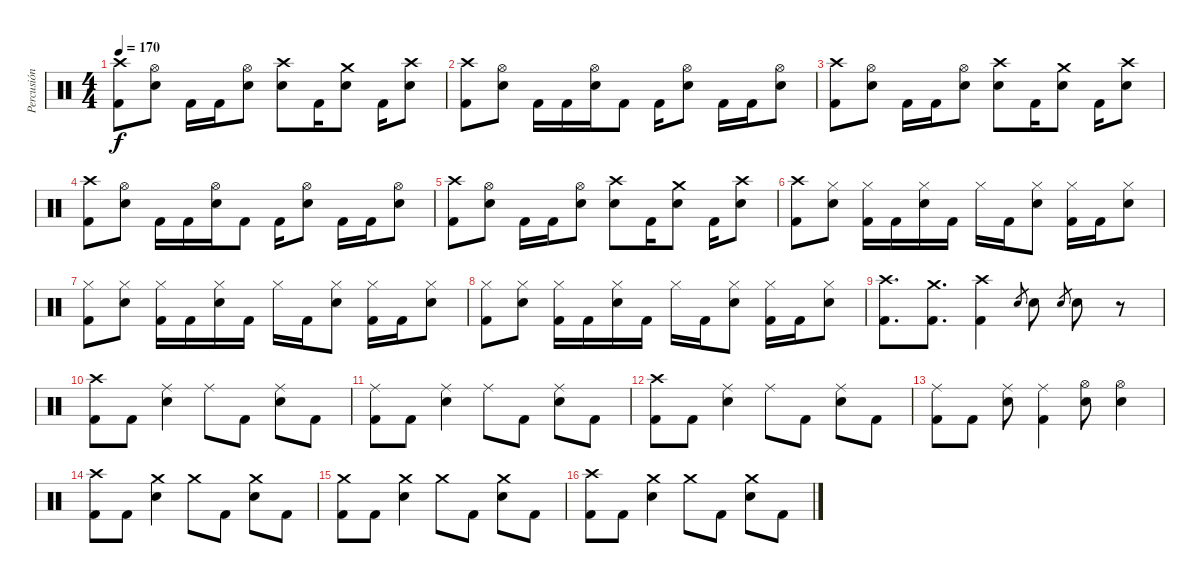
\track ("Percusión" "Percusión") {instrument percussion}
\staff {score}
\articulation defaults
\ts (4 4)
\tempo 170
\clef neutral
\ks c
("Crash high (hit)" "Kick (hit) 2").8{dy f} ("Hi-Hat (open)" "Electric Snare (hit)").8 "Kick (hit) 2".16 "Kick (hit) 2".16 ("Hi-Hat (open)" "Electric Snare (hit)").8 ("Crash high (hit)" "Electric Snare (hit)").8 "Kick (hit) 2".16 ("Crash medium (hit)" "Electric Snare (hit)").8 "Kick (hit) 2".16 ("Crash high (hit)" "Electric Snare (hit)").8 |
("Crash high (hit)" "Kick (hit) 2").8 ("Hi-Hat (open)" "Electric Snare (hit)").8 "Kick (hit) 2".16 "Kick (hit) 2".16 ("Hi-Hat (open)" "Electric Snare (hit)").16 "Kick (hit) 2".8 "Kick (hit) 2".16 ("Hi-Hat (open)" "Electric Snare (hit)").8 "Kick (hit) 2".16 "Kick (hit) 2".16 ("Hi-Hat (open)" "Electric Snare (hit)").8 |
("Crash high (hit)" "Kick (hit) 2").8 ("Hi-Hat (open)" "Electric Snare (hit)").8 "Kick (hit) 2".16 "Kick (hit) 2".16 ("Hi-Hat (open)" "Electric Snare (hit)").8 ("Crash high (hit)" "Electric Snare (hit)").8 "Kick (hit) 2".16 ("Crash medium (hit)" "Electric Snare (hit)").8 "Kick (hit) 2".16 ("Crash high (hit)" "Electric Snare (hit)").8 |
("Crash high (hit)" "Kick (hit) 2").8 ("Hi-Hat (open)" "Electric Snare (hit)").8 "Kick (hit) 2".16 "Kick (hit) 2".16 ("Hi-Hat (open)" "Electric Snare (hit)").16 "Kick (hit) 2".8 "Kick (hit) 2".16 ("Hi-Hat (open)" "Electric Snare (hit)").8 "Kick (hit) 2".16 "Kick (hit) 2".16 ("Hi-Hat (open)" "Electric Snare (hit)").8 |
("Crash high (hit)" "Kick (hit) 2").8 ("Hi-Hat (open)" "Electric Snare (hit)").8 "Kick (hit) 2".16 "Kick (hit) 2".16 ("Hi-Hat (open)" "Electric Snare (hit)").8 ("Crash high (hit)" "Electric Snare (hit)").8 "Kick (hit) 2".16 ("Crash medium (hit)" "Electric Snare (hit)").8 "Kick (hit) 2".16 ("Crash high (hit)" "Electric Snare (hit)").8 |
("Crash high (hit)" "Kick (hit) 2").8 ("Hi-Hat (closed)" "Electric Snare (hit)").8 ("Hi-Hat (closed)" "Kick (hit) 2").16 "Kick (hit) 2".16 ("Hi-Hat (closed)" "Electric Snare (hit)").16 "Kick (hit) 2".16 "Hi-Hat (closed)".16 "Kick (hit) 2".16 ("Hi-Hat (closed)" "Electric Snare (hit)").8 ("Hi-Hat (closed)" "Kick (hit) 2").16 "Kick (hit) 2".16 ("Hi-Hat (closed)" "Electric Snare (hit)").8 |
("Hi-Hat (closed)" "Kick (hit) 2").8 ("Hi-Hat (closed)" "Electric Snare (hit)").8 ("Hi-Hat (closed)" "Kick (hit) 2").16 "Kick (hit) 2".16 ("Hi-Hat (closed)" "Electric Snare (hit)").16 "Kick (hit) 2".16 "Hi-Hat (closed)".16 "Kick (hit) 2".16 ("Hi-Hat (closed)" "Electric Snare (hit)").8 ("Hi-Hat (closed)" "Kick (hit) 2").16 "Kick (hit) 2".16 ("Hi-Hat (closed)" "Electric Snare (hit)").8 |
("Hi-Hat (closed)" "Kick (hit) 2").8 ("Hi-Hat (closed)" "Electric Snare (hit)").8 ("Hi-Hat (closed)" "Kick (hit) 2").16 "Kick (hit) 2".16 ("Hi-Hat (closed)" "Electric Snare (hit)").16 "Kick (hit) 2".16 "Hi-Hat (closed)".16 "Kick (hit) 2".16 ("Hi-Hat (closed)" "Electric Snare (hit)").8 ("Hi-Hat (closed)" "Kick (hit) 2").16 "Kick (hit) 2".16 ("Hi-Hat (closed)" "Electric Snare (hit)").8 |
("Crash high (hit)" "Kick (hit) 2").8{d} ("Crash medium (hit)" "Kick (hit) 2").8{d} ("Crash high (hit)" "Kick (hit) 2").4 "Electric Snare (hit)".8{gr} "Electric Snare (hit)".8 "Electric Snare (hit)".8{gr} "Electric Snare (hit)".8 r.8 |
("Crash high (hit)" "Kick (hit) 2").8 "Kick (hit) 2".8 ("Ride (middle)" "Electric Snare (hit)").4 "Ride (middle)".8 "Kick (hit) 2".8 ("Ride (middle)" "Electric Snare (hit)").8 "Kick (hit) 2".8 |
("Ride (middle)" "Kick (hit) 2").8 "Kick (hit) 2".8 ("Ride (middle)" "Electric Snare (hit)").4 "Ride (middle)".8 "Kick (hit) 2".8 ("Ride (middle)" "Electric Snare (hit)").8 "Kick (hit) 2".8 |
("Crash high (hit)" "Kick (hit) 2").8 "Kick (hit) 2".8 ("Ride (middle)" "Electric Snare (hit)").4 "Ride (middle)".8 "Kick (hit) 2".8 ("Ride (middle)" "Electric Snare (hit)").8 "Kick (hit) 2".8 |
("Ride (middle)" "Kick (hit) 2").8 "Kick (hit) 2".8 ("Ride (middle)" "Electric Snare (hit)").8 ("Ride (middle)" "Kick (hit) 2").4 ("Hi-Hat (open)" "Electric Snare (hit)").8 ("Hi-Hat (open)" "Electric Snare (hit)").4 |
("Crash high (hit)" "Kick (hit) 2").8 "Kick (hit) 2".8 ("Crash medium (hit)" "Electric Snare (hit)").4 "Crash medium (hit)".8 "Kick (hit) 2".8 ("Crash medium (hit)" "Electric Snare (hit)").8 "Kick (hit) 2".8 |
("Crash medium (hit)" "Kick (hit) 2").8 "Kick (hit) 2".8 ("Crash medium (hit)" "Electric Snare (hit)").4 "Crash medium (hit)".8 "Kick (hit) 2".8 ("Crash medium (hit)" "Electric Snare (hit)").8 "Kick (hit) 2".8 |
("Crash high (hit)" "Kick (hit) 2").8 "Kick (hit) 2".8 ("Crash medium (hit)" "Electric Snare (hit)").4 "Crash medium (hit)".8 "Kick (hit) 2".8 ("Crash medium (hit)" "Electric Snare (hit)").8 "Kick (hit) 2".8
